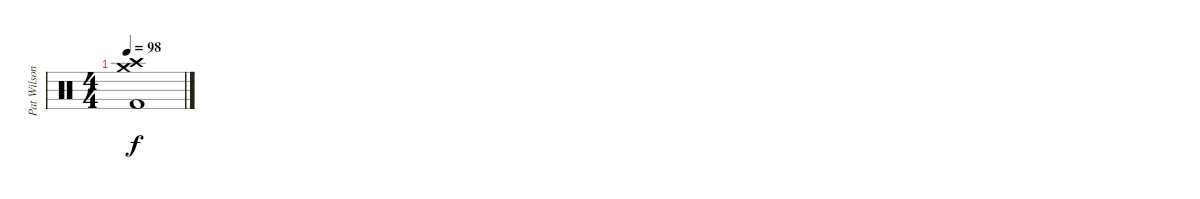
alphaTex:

\track ("Pat Wilson - Drums" "Pat Wilson") {instrument percussion}
\staff {score}
\articulation defaults
\ts (4 4)
\tempo 98
\clef neutral
\ks c
("Crash high (hit)" "Crash medium (hit)" "Kick (hit) 2").1{dy f}
